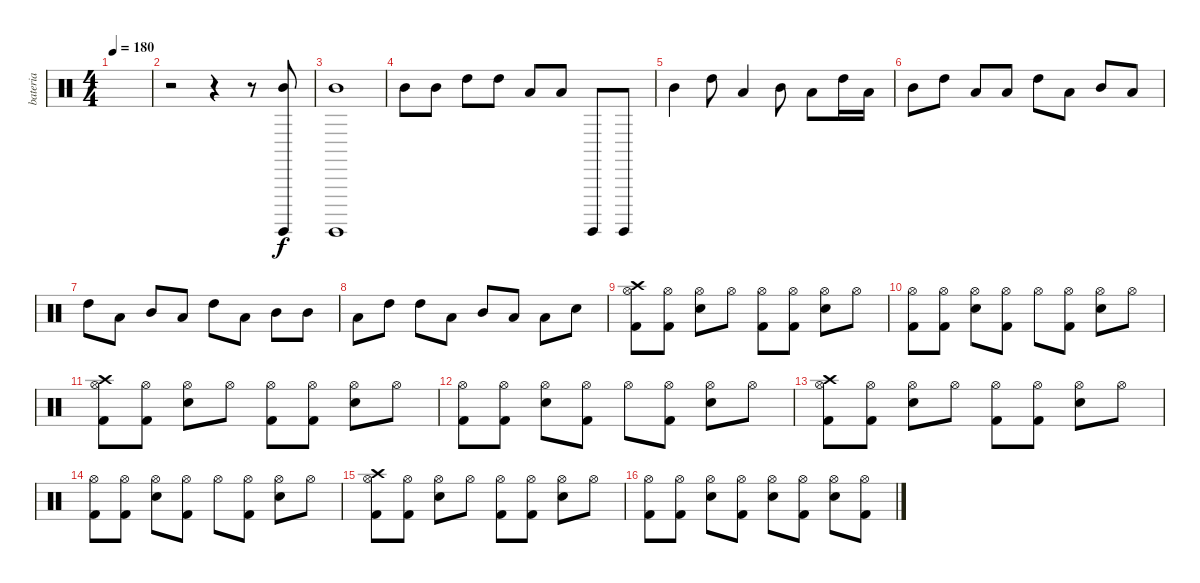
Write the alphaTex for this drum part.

\track ("bateria" "bateria") {instrument percussion}
\staff {score}
\articulation defaults
\ts (4 4)
\tempo 180
\clef neutral
\ks c
|
r.2 r.4 r.8 ("Surdo (hit)" "Mid Tom (hit)").8 |
("Surdo (hit)" "Mid Tom (hit)").1 |
"Mid Tom (hit)".8 "Mid Tom (hit)".8 "High Tom (hit)".8 "High Tom (hit)".8 "Low Tom (hit)".8 "Low Tom (hit)".8 "Surdo (hit)".8 "Surdo (hit)".8 |
"Mid Tom (hit)".4 "High Tom (hit)".8 "Low Tom (hit)".4 "Mid Tom (hit)".8 "Low Tom (hit)".8 "High Tom (hit)".16 "Low Tom (hit)".16 |
"Mid Tom (hit)".8 "High Tom (hit)".8 "Low Tom (hit)".8 "Low Tom (hit)".8 "High Tom (hit)".8 "Low Tom (hit)".8 "Mid Tom (hit)".8 "Low Tom (hit)".8 |
"High Tom (hit)".8 "Low Tom (hit)".8 "Mid Tom (hit)".8 "Low Tom (hit)".8 "High Tom (hit)".8 "Low Tom (hit)".8 "Mid Tom (hit)".8 "Mid Tom (hit)".8 |
"Low Tom (hit)".8 "High Tom (hit)".8 "High Tom (hit)".8 "Low Tom (hit)".8 "Mid Tom (hit)".8 "Low Tom (hit)".8 "Low Tom (hit)".8 "Electric Snare (hit)".8 |
("Hi-Hat (open)" "Kick (hit) 2" "Crash high (hit)").8 ("Hi-Hat (open)"{x} "Kick (hit) 2").8 ("Hi-Hat (open)" "Electric Snare (hit)").8 "Hi-Hat (open)"{x}.8 ("Hi-Hat (open)" "Kick (hit) 2").8 ("Hi-Hat (open)"{x} "Kick (hit) 2").8 ("Hi-Hat (open)" "Electric Snare (hit)").8 "Hi-Hat (open)"{x}.8 |
("Hi-Hat (open)" "Kick (hit) 2").8 ("Hi-Hat (open)"{x} "Kick (hit) 2").8 ("Hi-Hat (open)" "Electric Snare (hit)").8 ("Hi-Hat (open)"{x} "Kick (hit) 2").8 "Hi-Hat (open)".8 ("Hi-Hat (open)"{x} "Kick (hit) 2").8 ("Hi-Hat (open)" "Electric Snare (hit)").8 "Hi-Hat (open)"{x}.8 |
("Hi-Hat (open)" "Kick (hit) 2" "Crash high (hit)").8 ("Hi-Hat (open)"{x} "Kick (hit) 2").8 ("Hi-Hat (open)" "Electric Snare (hit)").8 "Hi-Hat (open)"{x}.8 ("Hi-Hat (open)" "Kick (hit) 2").8 ("Hi-Hat (open)"{x} "Kick (hit) 2").8 ("Hi-Hat (open)" "Electric Snare (hit)").8 "Hi-Hat (open)"{x}.8 |
("Hi-Hat (open)" "Kick (hit) 2").8 ("Hi-Hat (open)"{x} "Kick (hit) 2").8 ("Hi-Hat (open)" "Electric Snare (hit)").8 ("Hi-Hat (open)"{x} "Kick (hit) 2").8 "Hi-Hat (open)".8 ("Hi-Hat (open)"{x} "Kick (hit) 2").8 ("Hi-Hat (open)" "Electric Snare (hit)").8 "Hi-Hat (open)"{x}.8 |
("Hi-Hat (open)" "Kick (hit) 2" "Crash high (hit)").8 ("Hi-Hat (open)"{x} "Kick (hit) 2").8 ("Hi-Hat (open)" "Electric Snare (hit)").8 "Hi-Hat (open)"{x}.8 ("Hi-Hat (open)" "Kick (hit) 2").8 ("Hi-Hat (open)"{x} "Kick (hit) 2").8 ("Hi-Hat (open)" "Electric Snare (hit)").8 "Hi-Hat (open)"{x}.8 |
("Hi-Hat (open)" "Kick (hit) 2").8 ("Hi-Hat (open)"{x} "Kick (hit) 2").8 ("Hi-Hat (open)" "Electric Snare (hit)").8 ("Hi-Hat (open)"{x} "Kick (hit) 2").8 "Hi-Hat (open)".8 ("Hi-Hat (open)"{x} "Kick (hit) 2").8 ("Hi-Hat (open)" "Electric Snare (hit)").8 "Hi-Hat (open)"{x}.8 |
("Hi-Hat (open)" "Kick (hit) 2" "Crash high (hit)").8 ("Hi-Hat (open)"{x} "Kick (hit) 2").8 ("Hi-Hat (open)" "Electric Snare (hit)").8 "Hi-Hat (open)"{x}.8 ("Hi-Hat (open)" "Kick (hit) 2").8 ("Hi-Hat (open)"{x} "Kick (hit) 2").8 ("Hi-Hat (open)" "Electric Snare (hit)").8 "Hi-Hat (open)"{x}.8 |
("Hi-Hat (open)" "Kick (hit) 2").8 ("Hi-Hat (open)"{x} "Kick (hit) 2").8 ("Hi-Hat (open)" "Electric Snare (hit)").8 ("Hi-Hat (open)"{x} "Kick (hit) 2").8 ("Hi-Hat (open)" "Electric Snare (hit)").8 ("Hi-Hat (open)"{x} "Kick (hit) 2").8 ("Hi-Hat (open)" "Electric Snare (hit)").8 ("Hi-Hat (open)"{x} "Kick (hit) 2").8
